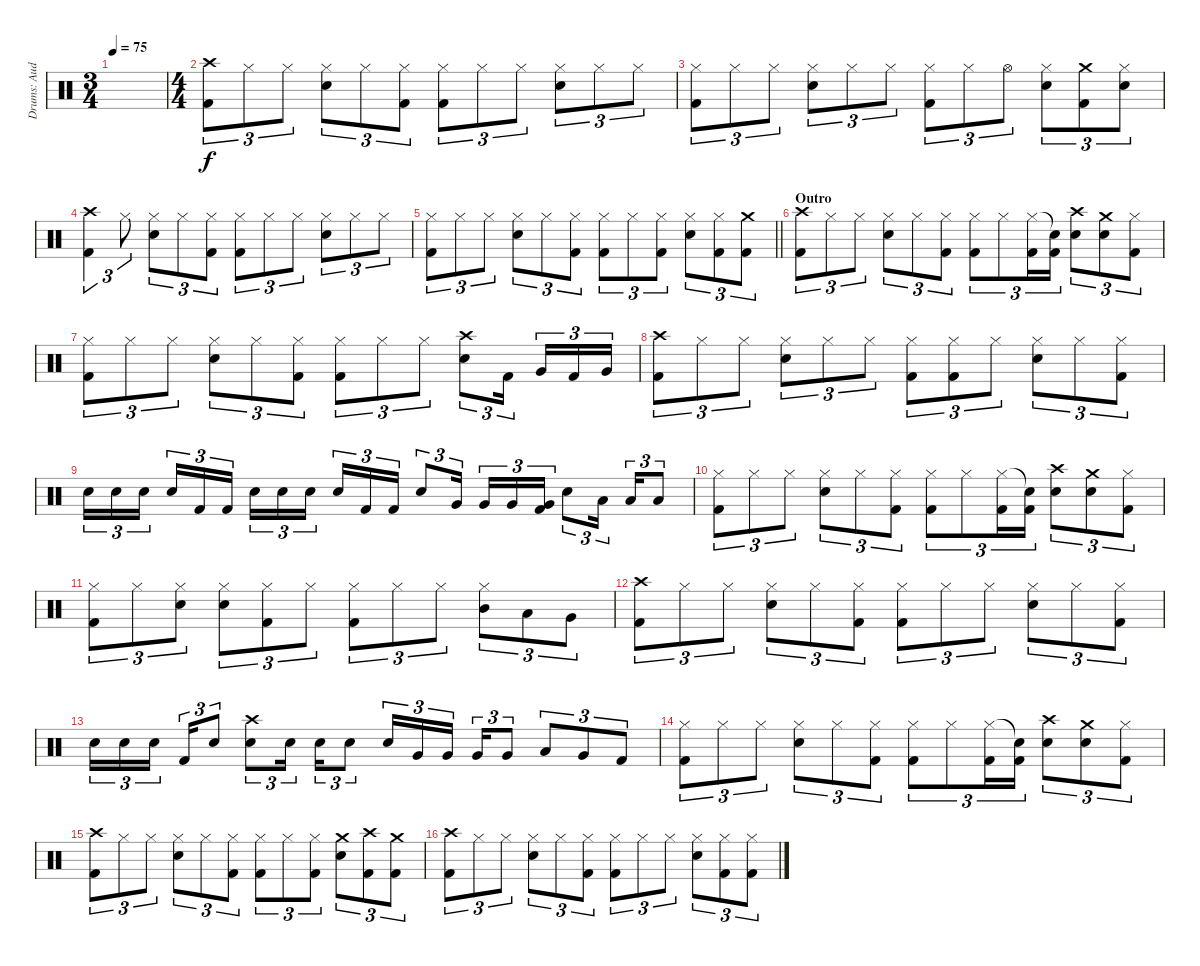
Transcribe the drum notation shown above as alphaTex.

\track ("Drums: Audie" "Drums: Aud") {instrument percussion}
\staff {score}
\articulation defaults
\ts (3 4)
\tempo 75
\clef neutral
\ks c
|
\ts (4 4)
("Crash high (hit)" "Kick (hit) 2").8{tu (3 2)} "Hi-Hat (closed)".8{tu (3 2)} "Hi-Hat (closed)".8{tu (3 2)} ("Hi-Hat (closed)" "Electric Snare (hit)").8{tu (3 2)} "Hi-Hat (closed)".8{tu (3 2)} ("Hi-Hat (closed)" "Kick (hit) 2").8{tu (3 2)} ("Hi-Hat (closed)" "Kick (hit) 2").8{tu (3 2)} "Hi-Hat (closed)".8{tu (3 2)} "Hi-Hat (closed)".8{tu (3 2)} ("Hi-Hat (closed)" "Electric Snare (hit)").8{tu (3 2)} "Hi-Hat (closed)".8{tu (3 2)} "Hi-Hat (closed)".8{tu (3 2)} |
("Hi-Hat (closed)" "Kick (hit) 2").8{tu (3 2)} "Hi-Hat (closed)".8{tu (3 2)} "Hi-Hat (closed)".8{tu (3 2)} ("Hi-Hat (closed)" "Electric Snare (hit)").8{tu (3 2)} "Hi-Hat (closed)".8{tu (3 2)} "Hi-Hat (closed)".8{tu (3 2)} ("Hi-Hat (closed)" "Kick (hit) 2").8{tu (3 2)} "Hi-Hat (closed)".8{tu (3 2)} "Hi-Hat (open)".8{tu (3 2)} ("Hi-Hat (closed)" "Electric Snare (hit)").8{tu (3 2)} ("Crash medium (hit)" "Kick (hit) 2").8{tu (3 2)} ("Hi-Hat (closed)" "Electric Snare (hit)").8{tu (3 2)} |
("Crash high (hit)" "Kick (hit) 2").4{tu (3 2)} "Hi-Hat (closed)".8{tu (3 2)} ("Hi-Hat (closed)" "Electric Snare (hit)").8{tu (3 2)} "Hi-Hat (closed)".8{tu (3 2)} ("Hi-Hat (closed)" "Kick (hit) 2").8{tu (3 2)} ("Hi-Hat (closed)" "Kick (hit) 2").8{tu (3 2)} "Hi-Hat (closed)".8{tu (3 2)} "Hi-Hat (closed)".8{tu (3 2)} ("Hi-Hat (closed)" "Electric Snare (hit)").8{tu (3 2)} "Hi-Hat (closed)".8{tu (3 2)} "Hi-Hat (closed)".8{tu (3 2)} |
\barLineRight lightlight
("Hi-Hat (closed)" "Kick (hit) 2").8{tu (3 2)} "Hi-Hat (closed)".8{tu (3 2)} "Hi-Hat (closed)".8{tu (3 2)} ("Hi-Hat (closed)" "Electric Snare (hit)").8{tu (3 2)} "Hi-Hat (closed)".8{tu (3 2)} ("Hi-Hat (closed)" "Kick (hit) 2").8{tu (3 2)} ("Hi-Hat (closed)" "Kick (hit) 2").8{tu (3 2)} "Hi-Hat (closed)".8{tu (3 2)} ("Hi-Hat (closed)" "Kick (hit) 2").8{tu (3 2)} ("Hi-Hat (closed)" "Electric Snare (hit)").8{tu (3 2)} ("Hi-Hat (closed)" "Kick (hit) 2").8{tu (3 2)} ("Crash medium (hit)" "Kick (hit) 2").8{tu (3 2)} |
\section ("" "Outro")
("Crash high (hit)" "Kick (hit) 2").8{tu (3 2)} "Hi-Hat (closed)".8{tu (3 2)} "Hi-Hat (closed)".8{tu (3 2)} ("Hi-Hat (closed)" "Snare (hit) 2").8{tu (3 2)} "Hi-Hat (closed)".8{tu (3 2)} ("Hi-Hat (closed)" "Kick (hit) 2").8{tu (3 2)} ("Hi-Hat (closed)" "Kick (hit) 2").8{tu (3 2)} "Hi-Hat (closed)".8{tu (3 2)} ("Hi-Hat (closed)" "Kick (hit) 2").16{tu (3 2)} ("Snare (hit)"{t} "Kick (hit) 2").16{tu (3 2)} ("Crash high (hit)" "Electric Snare (hit)").8{tu (3 2)} ("Crash medium (hit)" "Electric Snare (hit)").8{tu (3 2)} ("Hi-Hat (closed)" "Kick (hit) 2").8{tu (3 2)} |
("Hi-Hat (closed)" "Kick (hit) 2").8{tu (3 2)} "Hi-Hat (closed)".8{tu (3 2)} "Hi-Hat (closed)".8{tu (3 2)} ("Hi-Hat (closed)" "Snare (hit) 2").8{tu (3 2)} "Hi-Hat (closed)".8{tu (3 2)} ("Hi-Hat (closed)" "Kick (hit) 2").8{tu (3 2)} ("Hi-Hat (closed)" "Kick (hit) 2").8{tu (3 2)} "Hi-Hat (closed)".8{tu (3 2)} "Hi-Hat (closed)".8{tu (3 2)} ("Crash high (hit)" "Electric Snare (hit)").8{tu (3 2)} "Kick (hit) 2".16{tu (3 2) beam splitsecondary} "Very Low Tom (hit)".16{tu (3 2)} "Kick (hit) 2".16{tu (3 2)} "Very Low Tom (hit)".16{tu (3 2)} |
("Crash high (hit)" "Kick (hit) 2").8{tu (3 2)} "Hi-Hat (closed)".8{tu (3 2)} "Hi-Hat (closed)".8{tu (3 2)} ("Hi-Hat (closed)" "Electric Snare (hit)").8{tu (3 2)} "Hi-Hat (closed)".8{tu (3 2)} "Hi-Hat (closed)".8{tu (3 2)} ("Hi-Hat (closed)" "Kick (hit) 2").8{tu (3 2)} ("Hi-Hat (closed)" "Kick (hit) 2").8{tu (3 2)} "Hi-Hat (closed)".8{tu (3 2)} ("Hi-Hat (closed)" "Electric Snare (hit)").8{tu (3 2)} "Hi-Hat (closed)".8{tu (3 2)} ("Hi-Hat (closed)" "Kick (hit) 2").8{tu (3 2)} |
"Snare (hit) 2".16{tu (3 2)} "Snare (hit) 2".16{tu (3 2)} "Snare (hit) 2".16{tu (3 2) beam splitsecondary} "Snare (hit) 2".16{tu (3 2)} "Kick (hit) 2".16{tu (3 2)} "Kick (hit) 2".16{tu (3 2)} "Snare (hit) 2".16{tu (3 2)} "Snare (hit) 2".16{tu (3 2)} "Snare (hit) 2".16{tu (3 2) beam splitsecondary} "Snare (hit) 2".16{tu (3 2)} "Kick (hit) 2".16{tu (3 2)} "Kick (hit) 2".16{tu (3 2)} "Snare (hit) 2".8{tu (3 2)} "Very Low Tom (hit)".16{tu (3 2) beam splitsecondary} "Very Low Tom (hit)".16{tu (3 2)} "Very Low Tom (hit)".16{tu (3 2)} ("Very Low Tom (hit)" "Kick (hit) 2").16{tu (3 2)} "Snare (hit) 2".8{tu (3 2)} "Low Tom (hit)".16{tu (3 2) beam splitsecondary} "Low Tom (hit)".16{tu (3 2)} "Low Tom (hit)".8{tu (3 2)} |
("Hi-Hat (closed)" "Kick (hit) 2").8{tu (3 2)} "Hi-Hat (closed)".8{tu (3 2)} "Hi-Hat (closed)".8{tu (3 2)} ("Hi-Hat (closed)" "Snare (hit) 2").8{tu (3 2)} "Hi-Hat (closed)".8{tu (3 2)} ("Hi-Hat (closed)" "Kick (hit) 2").8{tu (3 2)} ("Hi-Hat (closed)" "Kick (hit) 2").8{tu (3 2)} "Hi-Hat (closed)".8{tu (3 2)} ("Hi-Hat (closed)" "Kick (hit) 2").16{tu (3 2)} ("Snare (hit)"{t} "Kick (hit) 2").16{tu (3 2)} ("Crash high (hit)" "Electric Snare (hit)").8{tu (3 2)} ("Crash medium (hit)" "Electric Snare (hit)").8{tu (3 2)} ("Hi-Hat (closed)" "Kick (hit) 2").8{tu (3 2)} |
("Hi-Hat (closed)" "Kick (hit) 2").8{tu (3 2)} "Hi-Hat (closed)".8{tu (3 2)} ("Hi-Hat (closed)" "Snare (hit) 2").8{tu (3 2)} ("Hi-Hat (closed)" "Snare (hit) 2").8{tu (3 2)} ("Hi-Hat (closed)" "Kick (hit) 2").8{tu (3 2)} "Hi-Hat (closed)".8{tu (3 2)} ("Hi-Hat (closed)" "Kick (hit) 2").8{tu (3 2)} "Hi-Hat (closed)".8{tu (3 2)} "Hi-Hat (closed)".8{tu (3 2)} ("Hi-Hat (closed)" "Mid Tom (hit)").8{tu (3 2)} "Low Tom (hit)".8{tu (3 2)} "Very Low Tom (hit)".8{tu (3 2)} |
("Crash high (hit)" "Kick (hit) 2").8{tu (3 2)} "Hi-Hat (closed)".8{tu (3 2)} "Hi-Hat (closed)".8{tu (3 2)} ("Hi-Hat (closed)" "Snare (hit) 2").8{tu (3 2)} "Hi-Hat (closed)".8{tu (3 2)} ("Hi-Hat (closed)" "Kick (hit) 2").8{tu (3 2)} ("Hi-Hat (closed)" "Kick (hit) 2").8{tu (3 2)} "Hi-Hat (closed)".8{tu (3 2)} "Hi-Hat (closed)".8{tu (3 2)} ("Hi-Hat (closed)" "Snare (hit) 2").8{tu (3 2)} "Hi-Hat (closed)".8{tu (3 2)} ("Hi-Hat (closed)" "Kick (hit) 2").8{tu (3 2)} |
"Snare (hit) 2".16{tu (3 2)} "Snare (hit) 2".16{tu (3 2)} "Snare (hit) 2".16{tu (3 2) beam splitsecondary} "Kick (hit) 2".16{tu (3 2)} "Snare (hit) 2".8{tu (3 2)} ("Crash high (hit)" "Snare (hit) 2").8{tu (3 2)} "Snare (hit) 2".16{tu (3 2) beam splitsecondary} "Snare (hit) 2".16{tu (3 2)} "Snare (hit) 2".8{tu (3 2)} "Snare (hit) 2".16{tu (3 2)} "Very Low Tom (hit)".16{tu (3 2)} "Very Low Tom (hit)".16{tu (3 2) beam splitsecondary} "Very Low Tom (hit)".16{tu (3 2)} "Very Low Tom (hit)".8{tu (3 2)} "Low Tom (hit)".8{tu (3 2)} "Very Low Tom (hit)".8{tu (3 2)} "Kick (hit) 2".8{tu (3 2)} |
("Hi-Hat (closed)" "Kick (hit) 2").8{tu (3 2)} "Hi-Hat (closed)".8{tu (3 2)} "Hi-Hat (closed)".8{tu (3 2)} ("Hi-Hat (closed)" "Snare (hit) 2").8{tu (3 2)} "Hi-Hat (closed)".8{tu (3 2)} ("Hi-Hat (closed)" "Kick (hit) 2").8{tu (3 2)} ("Hi-Hat (closed)" "Kick (hit) 2").8{tu (3 2)} "Hi-Hat (closed)".8{tu (3 2)} ("Hi-Hat (closed)" "Kick (hit) 2").16{tu (3 2)} ("Snare (hit)"{t} "Kick (hit) 2").16{tu (3 2)} ("Crash high (hit)" "Electric Snare (hit)").8{tu (3 2)} ("Crash medium (hit)" "Electric Snare (hit)").8{tu (3 2)} ("Hi-Hat (closed)" "Kick (hit) 2").8{tu (3 2)} |
("Crash high (hit)" "Kick (hit) 2").8{tu (3 2)} "Hi-Hat (closed)".8{tu (3 2)} "Hi-Hat (closed)".8{tu (3 2)} ("Hi-Hat (closed)" "Snare (hit) 2").8{tu (3 2)} "Hi-Hat (closed)".8{tu (3 2)} ("Hi-Hat (closed)" "Kick (hit) 2").8{tu (3 2)} ("Hi-Hat (closed)" "Kick (hit) 2").8{tu (3 2)} "Hi-Hat (closed)".8{tu (3 2)} ("Hi-Hat (closed)" "Kick (hit) 2").8{tu (3 2)} ("Crash medium (hit)" "Electric Snare (hit)").8{tu (3 2)} ("Crash high (hit)" "Kick (hit) 2").8{tu (3 2)} ("Crash medium (hit)" "Kick (hit) 2").8{tu (3 2)} |
("Crash high (hit)" "Kick (hit) 2").8{tu (3 2)} "Hi-Hat (closed)".8{tu (3 2)} "Hi-Hat (closed)".8{tu (3 2)} ("Hi-Hat (closed)" "Snare (hit) 2").8{tu (3 2)} "Hi-Hat (closed)".8{tu (3 2)} ("Hi-Hat (closed)" "Kick (hit) 2").8{tu (3 2)} ("Hi-Hat (closed)" "Kick (hit) 2").8{tu (3 2)} "Hi-Hat (closed)".8{tu (3 2)} "Hi-Hat (closed)".8{tu (3 2)} ("Hi-Hat (closed)" "Electric Snare (hit)").8{tu (3 2)} ("Hi-Hat (closed)" "Kick (hit) 2").8{tu (3 2)} ("Hi-Hat (closed)" "Kick (hit) 2").8{tu (3 2)}
